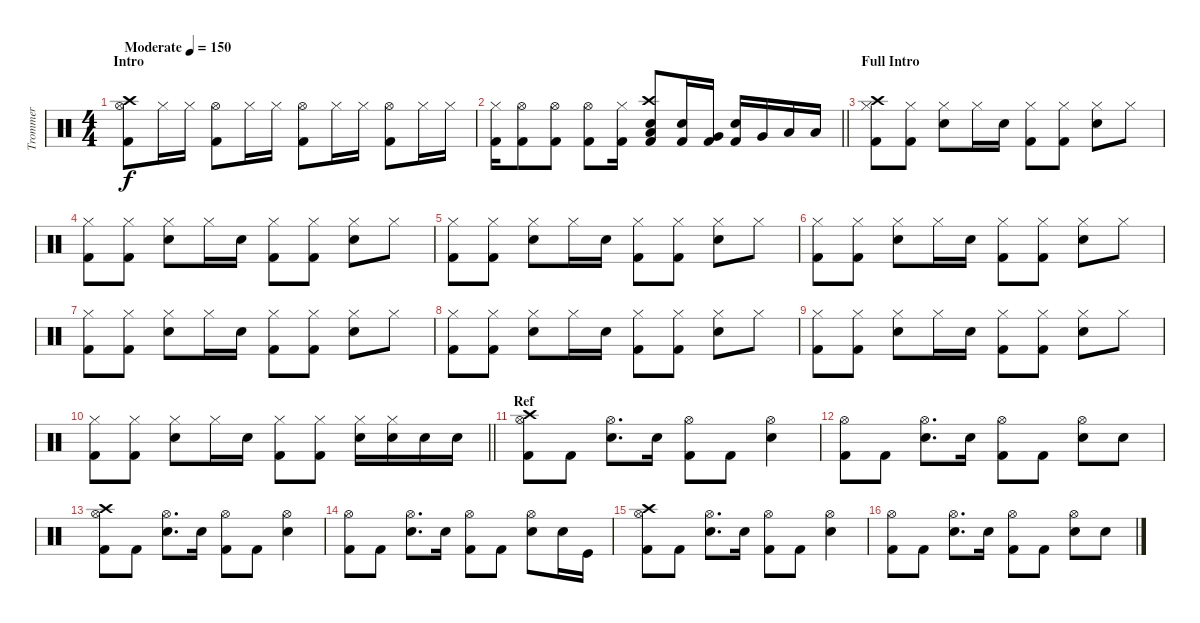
\track ("Trommer" "Trommer") {instrument percussion}
\staff {score}
\articulation defaults
\ts (4 4)
\section ("" "Intro")
\tempo (150 "Moderate")
\clef neutral
\ks c
("Kick (hit) 2" "Hi-Hat (open)" "Crash high (hit)").8{dy f} "Hi-Hat (closed)".16 "Hi-Hat (closed)".16 ("Kick (hit) 2" "Hi-Hat (open)").8 "Hi-Hat (closed)".16 "Hi-Hat (closed)".16 ("Kick (hit) 2" "Hi-Hat (open)").8 "Hi-Hat (closed)".16 "Hi-Hat (closed)".16 ("Kick (hit) 2" "Hi-Hat (open)").8 "Hi-Hat (closed)".16 "Hi-Hat (closed)".16 |
\barLineRight lightlight
("Kick (hit) 2" "Hi-Hat (closed)").16 ("Kick (hit) 2" "Hi-Hat (open)").8 ("Kick (hit) 2" "Hi-Hat (open)").8 ("Kick (hit) 2" "Hi-Hat (open)").8 ("Kick (hit) 2" "Hi-Hat (closed)").16 ("Kick (hit) 2" "Electric Snare (hit)" "Low Floor Tom (hit)" "Crash high (hit)").8 ("Kick (hit) 2" "Electric Snare (hit)").16 ("Kick (hit) 2" "Very Low Tom (hit)").16 ("Kick (hit) 2" "Electric Snare (hit)").16 "Very Low Tom (hit)".16 "Low Floor Tom (hit)".16 "Low Tom (hit)".16 |
\section ("" "Full Intro")
("Kick (hit) 2" "Hi-Hat (closed)" "Crash high (hit)").8 ("Kick (hit) 2" "Hi-Hat (closed)").8 ("Electric Snare (hit)" "Hi-Hat (closed)").8 "Hi-Hat (closed)".16 "Electric Snare (hit)".16 ("Kick (hit) 2" "Hi-Hat (closed)").8 ("Kick (hit) 2" "Hi-Hat (closed)").8 ("Electric Snare (hit)" "Hi-Hat (closed)").8 "Hi-Hat (closed)".8 |
("Kick (hit) 2" "Hi-Hat (closed)").8 ("Kick (hit) 2" "Hi-Hat (closed)").8 ("Electric Snare (hit)" "Hi-Hat (closed)").8 "Hi-Hat (closed)".16 "Electric Snare (hit)".16 ("Kick (hit) 2" "Hi-Hat (closed)").8 ("Kick (hit) 2" "Hi-Hat (closed)").8 ("Electric Snare (hit)" "Hi-Hat (closed)").8 "Hi-Hat (closed)".8 |
("Kick (hit) 2" "Hi-Hat (closed)").8 ("Kick (hit) 2" "Hi-Hat (closed)").8 ("Electric Snare (hit)" "Hi-Hat (closed)").8 "Hi-Hat (closed)".16 "Electric Snare (hit)".16 ("Kick (hit) 2" "Hi-Hat (closed)").8 ("Kick (hit) 2" "Hi-Hat (closed)").8 ("Electric Snare (hit)" "Hi-Hat (closed)").8 "Hi-Hat (closed)".8 |
("Kick (hit) 2" "Hi-Hat (closed)").8 ("Kick (hit) 2" "Hi-Hat (closed)").8 ("Electric Snare (hit)" "Hi-Hat (closed)").8 "Hi-Hat (closed)".16 "Electric Snare (hit)".16 ("Kick (hit) 2" "Hi-Hat (closed)").8 ("Kick (hit) 2" "Hi-Hat (closed)").8 ("Electric Snare (hit)" "Hi-Hat (closed)").8 "Hi-Hat (closed)".8 |
("Kick (hit) 2" "Hi-Hat (closed)").8 ("Kick (hit) 2" "Hi-Hat (closed)").8 ("Electric Snare (hit)" "Hi-Hat (closed)").8 "Hi-Hat (closed)".16 "Electric Snare (hit)".16 ("Kick (hit) 2" "Hi-Hat (closed)").8 ("Kick (hit) 2" "Hi-Hat (closed)").8 ("Electric Snare (hit)" "Hi-Hat (closed)").8 "Hi-Hat (closed)".8 |
("Kick (hit) 2" "Hi-Hat (closed)").8 ("Kick (hit) 2" "Hi-Hat (closed)").8 ("Electric Snare (hit)" "Hi-Hat (closed)").8 "Hi-Hat (closed)".16 "Electric Snare (hit)".16 ("Kick (hit) 2" "Hi-Hat (closed)").8 ("Kick (hit) 2" "Hi-Hat (closed)").8 ("Electric Snare (hit)" "Hi-Hat (closed)").8 "Hi-Hat (closed)".8 |
("Kick (hit) 2" "Hi-Hat (closed)").8 ("Kick (hit) 2" "Hi-Hat (closed)").8 ("Electric Snare (hit)" "Hi-Hat (closed)").8 "Hi-Hat (closed)".16 "Electric Snare (hit)".16 ("Kick (hit) 2" "Hi-Hat (closed)").8 ("Kick (hit) 2" "Hi-Hat (closed)").8 ("Electric Snare (hit)" "Hi-Hat (closed)").8 "Hi-Hat (closed)".8 |
\barLineRight lightlight
("Kick (hit) 2" "Hi-Hat (closed)").8 ("Kick (hit) 2" "Hi-Hat (closed)").8 ("Electric Snare (hit)" "Hi-Hat (closed)").8 "Hi-Hat (closed)".16 "Electric Snare (hit)".16 ("Kick (hit) 2" "Hi-Hat (closed)").8 ("Kick (hit) 2" "Hi-Hat (closed)").8 ("Electric Snare (hit)" "Hi-Hat (closed)").16 ("Electric Snare (hit)" "Hi-Hat (closed)").16 "Electric Snare (hit)".16 "Electric Snare (hit)".16 |
\section ("" "Ref")
("Kick (hit) 2" "Hi-Hat (open)" "Crash high (hit)").8 "Kick (hit) 2".8 ("Electric Snare (hit)" "Hi-Hat (open)").8{d} "Electric Snare (hit)".16 ("Kick (hit) 2" "Hi-Hat (open)").8 "Kick (hit) 2".8 ("Electric Snare (hit)" "Hi-Hat (open)").4 |
("Kick (hit) 2" "Hi-Hat (open)").8 "Kick (hit) 2".8 ("Electric Snare (hit)" "Hi-Hat (open)").8{d} "Electric Snare (hit)".16 ("Kick (hit) 2" "Hi-Hat (open)").8 "Kick (hit) 2".8 ("Electric Snare (hit)" "Hi-Hat (open)").8 "Electric Snare (hit)".8 |
("Kick (hit) 2" "Hi-Hat (open)" "Crash high (hit)").8 "Kick (hit) 2".8 ("Electric Snare (hit)" "Hi-Hat (open)").8{d} "Electric Snare (hit)".16 ("Kick (hit) 2" "Hi-Hat (open)").8 "Kick (hit) 2".8 ("Electric Snare (hit)" "Hi-Hat (open)").4 |
("Kick (hit) 2" "Hi-Hat (open)").8 "Kick (hit) 2".8 ("Electric Snare (hit)" "Hi-Hat (open)").8{d} "Electric Snare (hit)".16 ("Kick (hit) 2" "Hi-Hat (open)").8 "Kick (hit) 2".8 ("Electric Snare (hit)" "Hi-Hat (open)").8 "Electric Snare (hit)".16 "Kick (hit)".16 |
("Kick (hit) 2" "Hi-Hat (open)" "Crash high (hit)").8 "Kick (hit) 2".8 ("Electric Snare (hit)" "Hi-Hat (open)").8{d} "Electric Snare (hit)".16 ("Kick (hit) 2" "Hi-Hat (open)").8 "Kick (hit) 2".8 ("Electric Snare (hit)" "Hi-Hat (open)").4 |
("Kick (hit) 2" "Hi-Hat (open)").8 "Kick (hit) 2".8 ("Electric Snare (hit)" "Hi-Hat (open)").8{d} "Electric Snare (hit)".16 ("Kick (hit) 2" "Hi-Hat (open)").8 "Kick (hit) 2".8 ("Electric Snare (hit)" "Hi-Hat (open)").8 "Electric Snare (hit)".8
